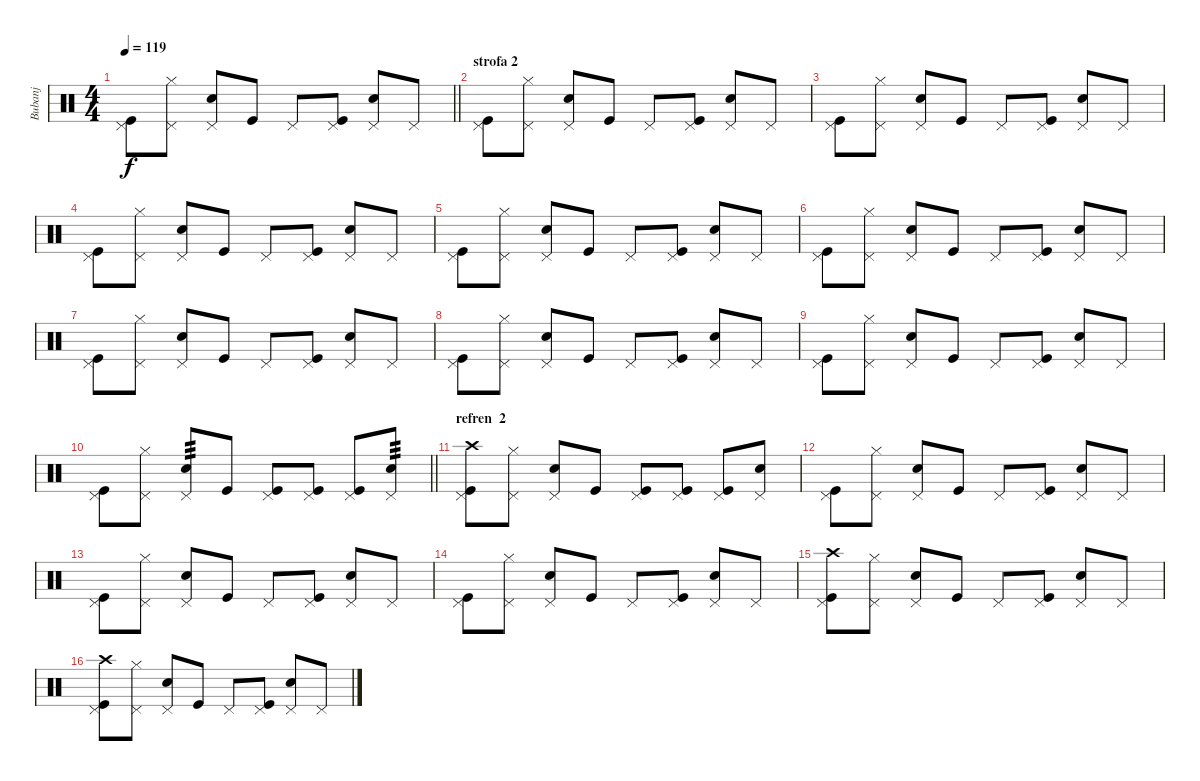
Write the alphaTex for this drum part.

\track ("Bubanj" "Bubanj") {instrument percussion}
\staff {score}
\articulation defaults
\ts (4 4)
\tempo 119
\clef neutral
\barLineRight lightlight
\ks c
("Pedal Hi-Hat (hit)" "Kick (hit)").8{dy f} ("Pedal Hi-Hat (hit)" "Hi-Hat (closed)").8 ("Pedal Hi-Hat (hit)" "Electric Snare (hit)").8 "Kick (hit)".8 "Pedal Hi-Hat (hit)".8 ("Pedal Hi-Hat (hit)" "Kick (hit)").8 ("Pedal Hi-Hat (hit)" "Electric Snare (hit)").8 "Pedal Hi-Hat (hit)".8 |
\section ("" "strofa 2")
("Pedal Hi-Hat (hit)" "Kick (hit)").8 ("Pedal Hi-Hat (hit)" "Hi-Hat (closed)").8 ("Pedal Hi-Hat (hit)" "Electric Snare (hit)").8 "Kick (hit)".8 "Pedal Hi-Hat (hit)".8 ("Pedal Hi-Hat (hit)" "Kick (hit)").8 ("Pedal Hi-Hat (hit)" "Electric Snare (hit)").8 "Pedal Hi-Hat (hit)".8 |
("Pedal Hi-Hat (hit)" "Kick (hit)").8 ("Pedal Hi-Hat (hit)" "Hi-Hat (closed)").8 ("Pedal Hi-Hat (hit)" "Electric Snare (hit)").8 "Kick (hit)".8 "Pedal Hi-Hat (hit)".8 ("Pedal Hi-Hat (hit)" "Kick (hit)").8 ("Pedal Hi-Hat (hit)" "Electric Snare (hit)").8 "Pedal Hi-Hat (hit)".8 |
("Pedal Hi-Hat (hit)" "Kick (hit)").8 ("Pedal Hi-Hat (hit)" "Hi-Hat (closed)").8 ("Pedal Hi-Hat (hit)" "Electric Snare (hit)").8 "Kick (hit)".8 "Pedal Hi-Hat (hit)".8 ("Pedal Hi-Hat (hit)" "Kick (hit)").8 ("Pedal Hi-Hat (hit)" "Electric Snare (hit)").8 "Pedal Hi-Hat (hit)".8 |
("Pedal Hi-Hat (hit)" "Kick (hit)").8 ("Pedal Hi-Hat (hit)" "Hi-Hat (closed)").8 ("Pedal Hi-Hat (hit)" "Electric Snare (hit)").8 "Kick (hit)".8 "Pedal Hi-Hat (hit)".8 ("Pedal Hi-Hat (hit)" "Kick (hit)").8 ("Pedal Hi-Hat (hit)" "Electric Snare (hit)").8 "Pedal Hi-Hat (hit)".8 |
("Pedal Hi-Hat (hit)" "Kick (hit)").8 ("Pedal Hi-Hat (hit)" "Hi-Hat (closed)").8 ("Pedal Hi-Hat (hit)" "Electric Snare (hit)").8 "Kick (hit)".8 "Pedal Hi-Hat (hit)".8 ("Pedal Hi-Hat (hit)" "Kick (hit)").8 ("Pedal Hi-Hat (hit)" "Electric Snare (hit)").8 "Pedal Hi-Hat (hit)".8 |
("Pedal Hi-Hat (hit)" "Kick (hit)").8 ("Pedal Hi-Hat (hit)" "Hi-Hat (closed)").8 ("Pedal Hi-Hat (hit)" "Electric Snare (hit)").8 "Kick (hit)".8 "Pedal Hi-Hat (hit)".8 ("Pedal Hi-Hat (hit)" "Kick (hit)").8 ("Pedal Hi-Hat (hit)" "Electric Snare (hit)").8 "Pedal Hi-Hat (hit)".8 |
("Pedal Hi-Hat (hit)" "Kick (hit)").8 ("Pedal Hi-Hat (hit)" "Hi-Hat (closed)").8 ("Pedal Hi-Hat (hit)" "Electric Snare (hit)").8 "Kick (hit)".8 "Pedal Hi-Hat (hit)".8 ("Pedal Hi-Hat (hit)" "Kick (hit)").8 ("Pedal Hi-Hat (hit)" "Electric Snare (hit)").8 "Pedal Hi-Hat (hit)".8 |
("Pedal Hi-Hat (hit)" "Kick (hit)").8 ("Pedal Hi-Hat (hit)" "Hi-Hat (closed)").8 ("Pedal Hi-Hat (hit)" "Electric Snare (hit)").8 "Kick (hit)".8 "Pedal Hi-Hat (hit)".8 ("Pedal Hi-Hat (hit)" "Kick (hit)").8 ("Pedal Hi-Hat (hit)" "Electric Snare (hit)").8 "Pedal Hi-Hat (hit)".8 |
\barLineRight lightlight
("Pedal Hi-Hat (hit)" "Kick (hit)").8 ("Pedal Hi-Hat (hit)" "Hi-Hat (closed)").8 ("Pedal Hi-Hat (hit)" "Electric Snare (hit)").8{tp 3} "Kick (hit)".8 ("Pedal Hi-Hat (hit)" "Kick (hit)").8 ("Pedal Hi-Hat (hit)" "Kick (hit)").8 ("Pedal Hi-Hat (hit)" "Kick (hit)").8 ("Pedal Hi-Hat (hit)" "Electric Snare (hit)").8{tp 3} |
\section ("" "refren  2")
("Pedal Hi-Hat (hit)" "Crash high (hit)" "Kick (hit)").8 ("Pedal Hi-Hat (hit)" "Hi-Hat (closed)").8 ("Pedal Hi-Hat (hit)" "Electric Snare (hit)").8 "Kick (hit)".8 ("Pedal Hi-Hat (hit)" "Kick (hit)").8 ("Pedal Hi-Hat (hit)" "Kick (hit)").8 ("Pedal Hi-Hat (hit)" "Kick (hit)").8 ("Pedal Hi-Hat (hit)" "Electric Snare (hit)").8 |
("Pedal Hi-Hat (hit)" "Kick (hit)").8 ("Pedal Hi-Hat (hit)" "Hi-Hat (closed)").8 ("Pedal Hi-Hat (hit)" "Electric Snare (hit)").8 "Kick (hit)".8 "Pedal Hi-Hat (hit)".8 ("Pedal Hi-Hat (hit)" "Kick (hit)").8 ("Pedal Hi-Hat (hit)" "Electric Snare (hit)").8 "Pedal Hi-Hat (hit)".8 |
("Pedal Hi-Hat (hit)" "Kick (hit)").8 ("Pedal Hi-Hat (hit)" "Hi-Hat (closed)").8 ("Pedal Hi-Hat (hit)" "Electric Snare (hit)").8 "Kick (hit)".8 "Pedal Hi-Hat (hit)".8 ("Pedal Hi-Hat (hit)" "Kick (hit)").8 ("Pedal Hi-Hat (hit)" "Electric Snare (hit)").8 "Pedal Hi-Hat (hit)".8 |
("Pedal Hi-Hat (hit)" "Kick (hit)").8 ("Pedal Hi-Hat (hit)" "Hi-Hat (closed)").8 ("Pedal Hi-Hat (hit)" "Electric Snare (hit)").8 "Kick (hit)".8 "Pedal Hi-Hat (hit)".8 ("Pedal Hi-Hat (hit)" "Kick (hit)").8 ("Pedal Hi-Hat (hit)" "Electric Snare (hit)").8 "Pedal Hi-Hat (hit)".8 |
("Pedal Hi-Hat (hit)" "Crash high (hit)" "Kick (hit)").8 ("Pedal Hi-Hat (hit)" "Hi-Hat (closed)").8 ("Pedal Hi-Hat (hit)" "Electric Snare (hit)").8 "Kick (hit)".8 "Pedal Hi-Hat (hit)".8 ("Pedal Hi-Hat (hit)" "Kick (hit)").8 ("Pedal Hi-Hat (hit)" "Electric Snare (hit)").8 "Pedal Hi-Hat (hit)".8 |
("Pedal Hi-Hat (hit)" "Crash high (hit)" "Kick (hit)").8 ("Pedal Hi-Hat (hit)" "Hi-Hat (closed)").8 ("Pedal Hi-Hat (hit)" "Electric Snare (hit)").8 "Kick (hit)".8 "Pedal Hi-Hat (hit)".8 ("Pedal Hi-Hat (hit)" "Kick (hit)").8 ("Pedal Hi-Hat (hit)" "Electric Snare (hit)").8 "Pedal Hi-Hat (hit)".8
